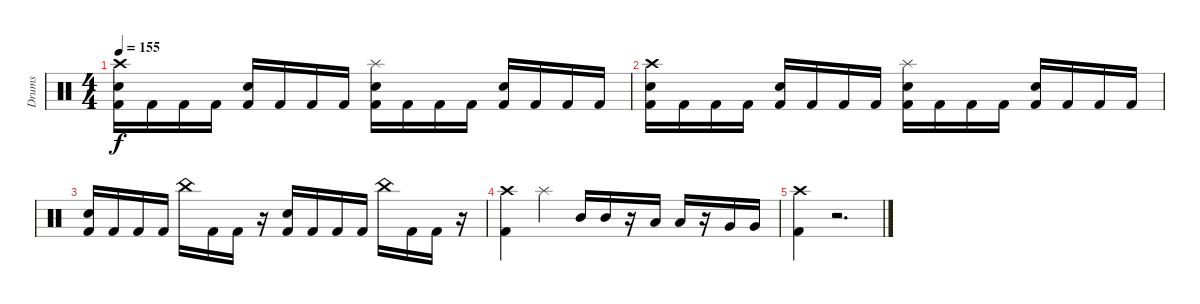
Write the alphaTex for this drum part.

\track ("Drums" "Drums") {instrument percussion}
\staff {score}
\articulation defaults
\ts (4 4)
\tempo 155
\clef neutral
\ks c
("Crash high (hit)" "Snare (hit) 2" "Kick (hit) 2").16{dy f} "Kick (hit) 2".16 "Kick (hit) 2".16 "Kick (hit) 2".16 ("Snare (hit) 2" "Kick (hit) 2").16 "Kick (hit) 2".16 "Kick (hit) 2".16 "Kick (hit) 2".16 ("Splash (hit)" "Snare (hit) 2" "Kick (hit) 2").16 "Kick (hit) 2".16 "Kick (hit) 2".16 "Kick (hit) 2".16 ("Snare (hit) 2" "Kick (hit) 2").16 "Kick (hit) 2".16 "Kick (hit) 2".16 "Kick (hit) 2".16 |
("Crash high (hit)" "Snare (hit) 2" "Kick (hit) 2").16 "Kick (hit) 2".16 "Kick (hit) 2".16 "Kick (hit) 2".16 ("Snare (hit) 2" "Kick (hit) 2").16 "Kick (hit) 2".16 "Kick (hit) 2".16 "Kick (hit) 2".16 ("Splash (hit)" "Snare (hit) 2" "Kick (hit) 2").16 "Kick (hit) 2".16 "Kick (hit) 2".16 "Kick (hit) 2".16 ("Snare (hit) 2" "Kick (hit) 2").16 "Kick (hit) 2".16 "Kick (hit) 2".16 "Kick (hit) 2".16 |
("Snare (hit) 2" "Kick (hit) 2").16 "Kick (hit) 2".16 "Kick (hit) 2".16 "Kick (hit) 2".16 "China (hit)".16 "Kick (hit) 2".16 "Kick (hit) 2".16 r.16 ("Snare (hit) 2" "Kick (hit) 2").16 "Kick (hit) 2".16 "Kick (hit) 2".16 "Kick (hit) 2".16 "China (hit)".16 "Kick (hit) 2".16 "Kick (hit) 2".16 r.16 |
("Crash high (hit)" "Kick (hit) 2").4 "Splash (hit)".4 "Mid Tom (hit)".16 "Mid Tom (hit)".16 r.16 "Low Tom (hit)".16 "Low Tom (hit)".16 r.16 "Very Low Tom (hit)".16 "Very Low Tom (hit)".16 |
("Crash high (hit)" "Kick (hit) 2").4 r.2{d}
